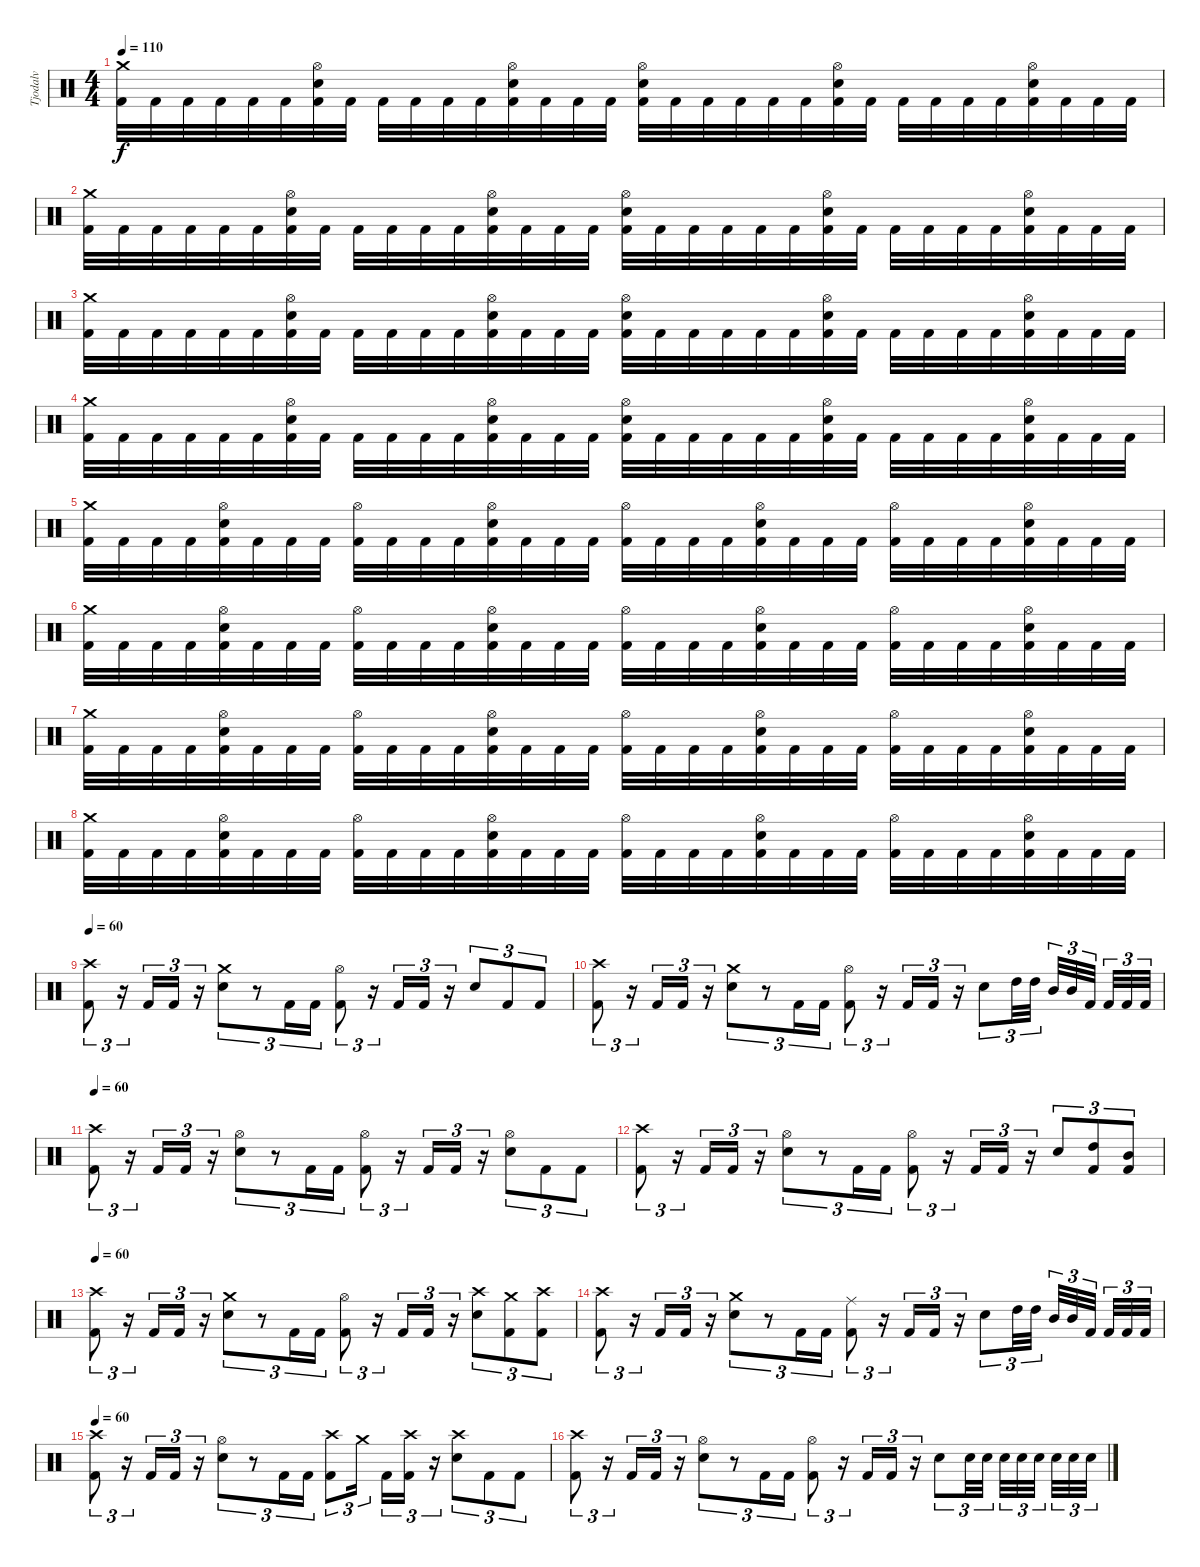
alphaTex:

\track ("Tjodalv" "Tjodalv") {instrument percussion}
\staff {score}
\articulation defaults
\ts (4 4)
\tempo 110
\clef neutral
\ks c
("Kick (hit) 2" "Crash medium (hit)").32{dy f} "Kick (hit) 2".32 "Kick (hit) 2".32 "Kick (hit) 2".32 "Kick (hit) 2".32 "Kick (hit) 2".32 ("Kick (hit) 2" "Snare (hit) 2" "Hi-Hat (open)").32 "Kick (hit) 2".32 "Kick (hit) 2".32 "Kick (hit) 2".32 "Kick (hit) 2".32 "Kick (hit) 2".32 ("Kick (hit) 2" "Snare (hit) 2" "Hi-Hat (open)").32 "Kick (hit) 2".32 "Kick (hit) 2".32 "Kick (hit) 2".32 ("Kick (hit) 2" "Snare (hit) 2" "Hi-Hat (open)").32 "Kick (hit) 2".32 "Kick (hit) 2".32 "Kick (hit) 2".32 "Kick (hit) 2".32 "Kick (hit) 2".32 ("Kick (hit) 2" "Snare (hit) 2" "Hi-Hat (open)").32 "Kick (hit) 2".32 "Kick (hit) 2".32 "Kick (hit) 2".32 "Kick (hit) 2".32 "Kick (hit) 2".32 ("Kick (hit) 2" "Snare (hit) 2" "Hi-Hat (open)").32 "Kick (hit) 2".32 "Kick (hit) 2".32 "Kick (hit) 2".32 |
("Kick (hit) 2" "Crash medium (hit)").32 "Kick (hit) 2".32 "Kick (hit) 2".32 "Kick (hit) 2".32 "Kick (hit) 2".32 "Kick (hit) 2".32 ("Kick (hit) 2" "Snare (hit) 2" "Hi-Hat (open)").32 "Kick (hit) 2".32 "Kick (hit) 2".32 "Kick (hit) 2".32 "Kick (hit) 2".32 "Kick (hit) 2".32 ("Kick (hit) 2" "Snare (hit) 2" "Hi-Hat (open)").32 "Kick (hit) 2".32 "Kick (hit) 2".32 "Kick (hit) 2".32 ("Kick (hit) 2" "Snare (hit) 2" "Hi-Hat (open)").32 "Kick (hit) 2".32 "Kick (hit) 2".32 "Kick (hit) 2".32 "Kick (hit) 2".32 "Kick (hit) 2".32 ("Kick (hit) 2" "Snare (hit) 2" "Hi-Hat (open)").32 "Kick (hit) 2".32 "Kick (hit) 2".32 "Kick (hit) 2".32 "Kick (hit) 2".32 "Kick (hit) 2".32 ("Kick (hit) 2" "Snare (hit) 2" "Hi-Hat (open)").32 "Kick (hit) 2".32 "Kick (hit) 2".32 "Kick (hit) 2".32 |
("Kick (hit) 2" "Crash medium (hit)").32 "Kick (hit) 2".32 "Kick (hit) 2".32 "Kick (hit) 2".32 "Kick (hit) 2".32 "Kick (hit) 2".32 ("Kick (hit) 2" "Snare (hit) 2" "Hi-Hat (open)").32 "Kick (hit) 2".32 "Kick (hit) 2".32 "Kick (hit) 2".32 "Kick (hit) 2".32 "Kick (hit) 2".32 ("Kick (hit) 2" "Snare (hit) 2" "Hi-Hat (open)").32 "Kick (hit) 2".32 "Kick (hit) 2".32 "Kick (hit) 2".32 ("Kick (hit) 2" "Snare (hit) 2" "Hi-Hat (open)").32 "Kick (hit) 2".32 "Kick (hit) 2".32 "Kick (hit) 2".32 "Kick (hit) 2".32 "Kick (hit) 2".32 ("Kick (hit) 2" "Snare (hit) 2" "Hi-Hat (open)").32 "Kick (hit) 2".32 "Kick (hit) 2".32 "Kick (hit) 2".32 "Kick (hit) 2".32 "Kick (hit) 2".32 ("Kick (hit) 2" "Snare (hit) 2" "Hi-Hat (open)").32 "Kick (hit) 2".32 "Kick (hit) 2".32 "Kick (hit) 2".32 |
("Kick (hit) 2" "Crash medium (hit)").32 "Kick (hit) 2".32 "Kick (hit) 2".32 "Kick (hit) 2".32 "Kick (hit) 2".32 "Kick (hit) 2".32 ("Kick (hit) 2" "Snare (hit) 2" "Hi-Hat (open)").32 "Kick (hit) 2".32 "Kick (hit) 2".32 "Kick (hit) 2".32 "Kick (hit) 2".32 "Kick (hit) 2".32 ("Kick (hit) 2" "Snare (hit) 2" "Hi-Hat (open)").32 "Kick (hit) 2".32 "Kick (hit) 2".32 "Kick (hit) 2".32 ("Kick (hit) 2" "Snare (hit) 2" "Hi-Hat (open)").32 "Kick (hit) 2".32 "Kick (hit) 2".32 "Kick (hit) 2".32 "Kick (hit) 2".32 "Kick (hit) 2".32 ("Kick (hit) 2" "Snare (hit) 2" "Hi-Hat (open)").32 "Kick (hit) 2".32 "Kick (hit) 2".32 "Kick (hit) 2".32 "Kick (hit) 2".32 "Kick (hit) 2".32 ("Kick (hit) 2" "Snare (hit) 2" "Hi-Hat (open)").32 "Kick (hit) 2".32 "Kick (hit) 2".32 "Kick (hit) 2".32 |
("Kick (hit) 2" "Crash medium (hit)").32 "Kick (hit) 2".32 "Kick (hit) 2".32 "Kick (hit) 2".32 ("Kick (hit) 2" "Hi-Hat (open)" "Snare (hit) 2").32 "Kick (hit) 2".32 "Kick (hit) 2".32 "Kick (hit) 2".32 ("Kick (hit) 2" "Hi-Hat (open)").32 "Kick (hit) 2".32 "Kick (hit) 2".32 "Kick (hit) 2".32 ("Hi-Hat (open)" "Kick (hit) 2" "Snare (hit) 2").32 "Kick (hit) 2".32 "Kick (hit) 2".32 "Kick (hit) 2".32 ("Kick (hit) 2" "Hi-Hat (open)").32 "Kick (hit) 2".32 "Kick (hit) 2".32 "Kick (hit) 2".32 ("Kick (hit) 2" "Hi-Hat (open)" "Snare (hit) 2").32 "Kick (hit) 2".32 "Kick (hit) 2".32 "Kick (hit) 2".32 ("Kick (hit) 2" "Hi-Hat (open)").32 "Kick (hit) 2".32 "Kick (hit) 2".32 "Kick (hit) 2".32 ("Kick (hit) 2" "Hi-Hat (open)" "Snare (hit) 2").32 "Kick (hit) 2".32 "Kick (hit) 2".32 "Kick (hit) 2".32 |
("Kick (hit) 2" "Crash medium (hit)").32 "Kick (hit) 2".32 "Kick (hit) 2".32 "Kick (hit) 2".32 ("Kick (hit) 2" "Hi-Hat (open)" "Snare (hit) 2").32 "Kick (hit) 2".32 "Kick (hit) 2".32 "Kick (hit) 2".32 ("Kick (hit) 2" "Hi-Hat (open)").32 "Kick (hit) 2".32 "Kick (hit) 2".32 "Kick (hit) 2".32 ("Hi-Hat (open)" "Kick (hit) 2" "Snare (hit) 2").32 "Kick (hit) 2".32 "Kick (hit) 2".32 "Kick (hit) 2".32 ("Kick (hit) 2" "Hi-Hat (open)").32 "Kick (hit) 2".32 "Kick (hit) 2".32 "Kick (hit) 2".32 ("Kick (hit) 2" "Hi-Hat (open)" "Snare (hit) 2").32 "Kick (hit) 2".32 "Kick (hit) 2".32 "Kick (hit) 2".32 ("Kick (hit) 2" "Hi-Hat (open)").32 "Kick (hit) 2".32 "Kick (hit) 2".32 "Kick (hit) 2".32 ("Kick (hit) 2" "Hi-Hat (open)" "Snare (hit) 2").32 "Kick (hit) 2".32 "Kick (hit) 2".32 "Kick (hit) 2".32 |
("Kick (hit) 2" "Crash medium (hit)").32 "Kick (hit) 2".32 "Kick (hit) 2".32 "Kick (hit) 2".32 ("Kick (hit) 2" "Hi-Hat (open)" "Snare (hit) 2").32 "Kick (hit) 2".32 "Kick (hit) 2".32 "Kick (hit) 2".32 ("Kick (hit) 2" "Hi-Hat (open)").32 "Kick (hit) 2".32 "Kick (hit) 2".32 "Kick (hit) 2".32 ("Hi-Hat (open)" "Kick (hit) 2" "Snare (hit) 2").32 "Kick (hit) 2".32 "Kick (hit) 2".32 "Kick (hit) 2".32 ("Kick (hit) 2" "Hi-Hat (open)").32 "Kick (hit) 2".32 "Kick (hit) 2".32 "Kick (hit) 2".32 ("Kick (hit) 2" "Hi-Hat (open)" "Snare (hit) 2").32 "Kick (hit) 2".32 "Kick (hit) 2".32 "Kick (hit) 2".32 ("Kick (hit) 2" "Hi-Hat (open)").32 "Kick (hit) 2".32 "Kick (hit) 2".32 "Kick (hit) 2".32 ("Kick (hit) 2" "Hi-Hat (open)" "Snare (hit) 2").32 "Kick (hit) 2".32 "Kick (hit) 2".32 "Kick (hit) 2".32 |
("Kick (hit) 2" "Crash medium (hit)").32 "Kick (hit) 2".32 "Kick (hit) 2".32 "Kick (hit) 2".32 ("Kick (hit) 2" "Hi-Hat (open)" "Snare (hit) 2").32 "Kick (hit) 2".32 "Kick (hit) 2".32 "Kick (hit) 2".32 ("Kick (hit) 2" "Hi-Hat (open)").32 "Kick (hit) 2".32 "Kick (hit) 2".32 "Kick (hit) 2".32 ("Hi-Hat (open)" "Kick (hit) 2" "Snare (hit) 2").32 "Kick (hit) 2".32 "Kick (hit) 2".32 "Kick (hit) 2".32 ("Kick (hit) 2" "Hi-Hat (open)").32 "Kick (hit) 2".32 "Kick (hit) 2".32 "Kick (hit) 2".32 ("Kick (hit) 2" "Hi-Hat (open)" "Snare (hit) 2").32 "Kick (hit) 2".32 "Kick (hit) 2".32 "Kick (hit) 2".32 ("Kick (hit) 2" "Hi-Hat (open)").32 "Kick (hit) 2".32 "Kick (hit) 2".32 "Kick (hit) 2".32 ("Kick (hit) 2" "Hi-Hat (open)" "Snare (hit) 2").32 "Kick (hit) 2".32 "Kick (hit) 2".32 "Kick (hit) 2".32 |
\tempo 60
("Crash high (hit)" "Kick (hit) 2").8{tu (3 2)} r.16{tu (3 2)} "Kick (hit) 2".16{tu (3 2)} "Kick (hit) 2".16{tu (3 2)} r.16{tu (3 2)} ("Snare (hit) 2" "Crash medium (hit)").8{tu (3 2)} r.8{tu (3 2)} "Kick (hit) 2".16{tu (3 2)} "Kick (hit) 2".16{tu (3 2)} ("Hi-Hat (open)" "Kick (hit) 2").8{tu (3 2)} r.16{tu (3 2)} "Kick (hit) 2".16{tu (3 2)} "Kick (hit) 2".16{tu (3 2)} r.16{tu (3 2)} "Snare (hit) 2".8{tu (3 2)} "Kick (hit) 2".8{tu (3 2)} "Kick (hit) 2".8{tu (3 2)} |
("Crash high (hit)" "Kick (hit) 2").8{tu (3 2)} r.16{tu (3 2)} "Kick (hit) 2".16{tu (3 2)} "Kick (hit) 2".16{tu (3 2)} r.16{tu (3 2)} ("Snare (hit) 2" "Crash medium (hit)").8{tu (3 2)} r.8{tu (3 2)} "Kick (hit) 2".16{tu (3 2)} "Kick (hit) 2".16{tu (3 2)} ("Hi-Hat (open)" "Kick (hit) 2").8{tu (3 2)} r.16{tu (3 2)} "Kick (hit) 2".16{tu (3 2)} "Kick (hit) 2".16{tu (3 2)} r.16{tu (3 2)} "Snare (hit) 2".8{tu (3 2)} "High Tom (hit)".32{tu (3 2)} "High Tom (hit)".32{tu (3 2)} "Mid Tom (hit)".32{tu (3 2)} "Mid Tom (hit)".32{tu (3 2)} "Kick (hit) 2".32{tu (3 2)} "Kick (hit) 2".32{tu (3 2)} "Kick (hit) 2".32{tu (3 2)} "Kick (hit) 2".32{tu (3 2)} |
\tempo 60
("Crash high (hit)" "Kick (hit) 2").8{tu (3 2)} r.16{tu (3 2)} "Kick (hit) 2".16{tu (3 2)} "Kick (hit) 2".16{tu (3 2)} r.16{tu (3 2)} ("Snare (hit) 2" "Hi-Hat (open)").8{tu (3 2)} r.8{tu (3 2)} "Kick (hit) 2".16{tu (3 2)} "Kick (hit) 2".16{tu (3 2)} ("Hi-Hat (open)" "Kick (hit) 2").8{tu (3 2)} r.16{tu (3 2)} "Kick (hit) 2".16{tu (3 2)} "Kick (hit) 2".16{tu (3 2)} r.16{tu (3 2)} ("Snare (hit) 2" "Hi-Hat (open)").8{tu (3 2)} "Kick (hit) 2".8{tu (3 2)} "Kick (hit) 2".8{tu (3 2)} |
("Crash high (hit)" "Kick (hit) 2").8{tu (3 2)} r.16{tu (3 2)} "Kick (hit) 2".16{tu (3 2)} "Kick (hit) 2".16{tu (3 2)} r.16{tu (3 2)} ("Snare (hit) 2" "Hi-Hat (open)").8{tu (3 2)} r.8{tu (3 2)} "Kick (hit) 2".16{tu (3 2)} "Kick (hit) 2".16{tu (3 2)} ("Hi-Hat (open)" "Kick (hit) 2").8{tu (3 2)} r.16{tu (3 2)} "Kick (hit) 2".16{tu (3 2)} "Kick (hit) 2".16{tu (3 2)} r.16{tu (3 2)} "Snare (hit) 2".8{tu (3 2)} ("Kick (hit) 2" "High Tom (hit)").8{tu (3 2)} ("Kick (hit) 2" "Mid Tom (hit)").8{tu (3 2)} |
\tempo 60
("Crash high (hit)" "Kick (hit) 2").8{tu (3 2)} r.16{tu (3 2)} "Kick (hit) 2".16{tu (3 2)} "Kick (hit) 2".16{tu (3 2)} r.16{tu (3 2)} ("Snare (hit) 2" "Crash medium (hit)").8{tu (3 2)} r.8{tu (3 2)} "Kick (hit) 2".16{tu (3 2)} "Kick (hit) 2".16{tu (3 2)} ("Hi-Hat (open)" "Kick (hit) 2").8{tu (3 2)} r.16{tu (3 2)} "Kick (hit) 2".16{tu (3 2)} "Kick (hit) 2".16{tu (3 2)} r.16{tu (3 2)} ("Snare (hit) 2" "Crash high (hit)").8{tu (3 2)} ("Kick (hit) 2" "Crash medium (hit)").8{tu (3 2)} ("Kick (hit) 2" "Crash high (hit)").8{tu (3 2)} |
("Crash high (hit)" "Kick (hit) 2").8{tu (3 2)} r.16{tu (3 2)} "Kick (hit) 2".16{tu (3 2)} "Kick (hit) 2".16{tu (3 2)} r.16{tu (3 2)} ("Snare (hit) 2" "Crash medium (hit)").8{tu (3 2)} r.8{tu (3 2)} "Kick (hit) 2".16{tu (3 2)} "Kick (hit) 2".16{tu (3 2)} ("Ride (middle)" "Kick (hit) 2").8{tu (3 2)} r.16{tu (3 2)} "Kick (hit) 2".16{tu (3 2)} "Kick (hit) 2".16{tu (3 2)} r.16{tu (3 2)} "Snare (hit) 2".8{tu (3 2)} "High Tom (hit)".32{tu (3 2)} "High Tom (hit)".32{tu (3 2)} "Mid Tom (hit)".32{tu (3 2)} "Mid Tom (hit)".32{tu (3 2)} "Kick (hit) 2".32{tu (3 2)} "Kick (hit) 2".32{tu (3 2)} "Kick (hit) 2".32{tu (3 2)} "Kick (hit) 2".32{tu (3 2)} |
\tempo 60
("Crash high (hit)" "Kick (hit) 2").8{tu (3 2)} r.16{tu (3 2)} "Kick (hit) 2".16{tu (3 2)} "Kick (hit) 2".16{tu (3 2)} r.16{tu (3 2)} ("Snare (hit) 2" "Hi-Hat (open)").8{tu (3 2)} r.8{tu (3 2)} "Kick (hit) 2".16{tu (3 2)} "Kick (hit) 2".16{tu (3 2)} ("Kick (hit) 2" "Crash high (hit)").8{tu (3 2)} "Crash medium (hit)".16{tu (3 2)} "Kick (hit) 2".16{tu (3 2)} ("Crash high (hit)" "Kick (hit) 2").16{tu (3 2)} r.16{tu (3 2)} ("Snare (hit) 2" "Crash high (hit)").8{tu (3 2)} "Kick (hit) 2".8{tu (3 2)} "Kick (hit) 2".8{tu (3 2)} |
("Crash high (hit)" "Kick (hit) 2").8{tu (3 2)} r.16{tu (3 2)} "Kick (hit) 2".16{tu (3 2)} "Kick (hit) 2".16{tu (3 2)} r.16{tu (3 2)} ("Snare (hit) 2" "Hi-Hat (open)").8{tu (3 2)} r.8{tu (3 2)} "Kick (hit) 2".16{tu (3 2)} "Kick (hit) 2".16{tu (3 2)} ("Hi-Hat (open)" "Kick (hit) 2").8{tu (3 2)} r.16{tu (3 2)} "Kick (hit) 2".16{tu (3 2)} "Kick (hit) 2".16{tu (3 2)} r.16{tu (3 2)} "Snare (hit) 2".8{tu (3 2)} "Snare (hit) 2".32{tu (3 2)} "Snare (hit) 2".32{tu (3 2)} "Snare (hit) 2".32{tu (3 2)} "Snare (hit) 2".32{tu (3 2)} "Snare (hit) 2".32{tu (3 2)} "Snare (hit) 2".32{tu (3 2)} "Snare (hit) 2".32{tu (3 2)} "Snare (hit) 2".32{tu (3 2)}
